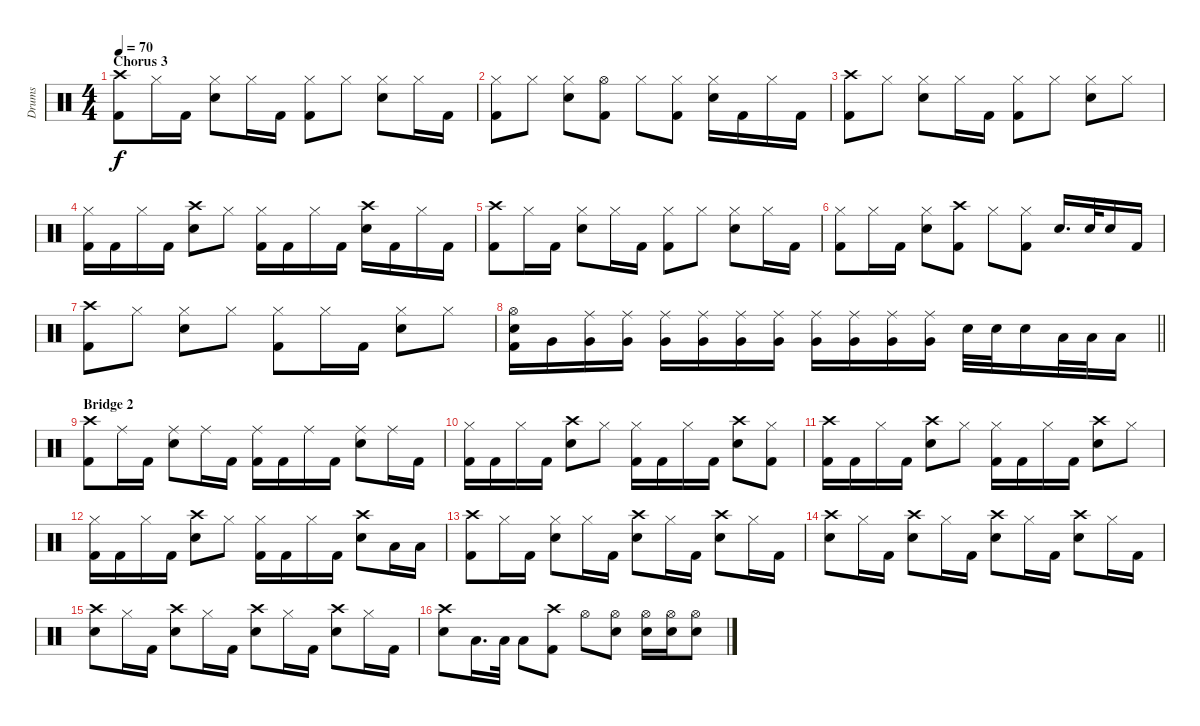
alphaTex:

\track ("Drums" "Drums") {instrument percussion}
\staff {score}
\articulation defaults
\ts (4 4)
\section ("" "Chorus 3")
\tempo 70
\clef neutral
\ks c
("Crash high (hit)" "Kick (hit) 2").8{dy f} "Hi-Hat (closed)".16 "Kick (hit) 2".16 ("Hi-Hat (closed)" "Snare (hit) 2").8 "Hi-Hat (closed)".16 "Kick (hit) 2".16 ("Hi-Hat (closed)" "Kick (hit) 2").8 "Hi-Hat (closed)".8 ("Hi-Hat (closed)" "Snare (hit) 2").8 "Hi-Hat (closed)".16 "Kick (hit) 2".16 |
("Hi-Hat (closed)" "Kick (hit) 2").8 "Hi-Hat (closed)".8 ("Hi-Hat (closed)" "Snare (hit) 2").8 ("Hi-Hat (open)" "Kick (hit) 2").8 "Hi-Hat (closed)".8 ("Hi-Hat (closed)" "Kick (hit) 2").8 ("Hi-Hat (closed)" "Snare (hit) 2").16 "Kick (hit) 2".16 "Hi-Hat (closed)".16 "Kick (hit) 2".16 |
("Crash high (hit)" "Kick (hit) 2").8 "Hi-Hat (closed)".8 ("Hi-Hat (closed)" "Snare (hit) 2").8 "Hi-Hat (closed)".16 "Kick (hit) 2".16 ("Hi-Hat (closed)" "Kick (hit) 2").8 "Hi-Hat (closed)".8 ("Hi-Hat (closed)" "Snare (hit) 2").8 "Hi-Hat (closed)".8 |
("Hi-Hat (closed)" "Kick (hit) 2").16 "Kick (hit) 2".16 "Hi-Hat (closed)".16 "Kick (hit) 2".16 ("Crash high (hit)" "Snare (hit) 2").8 "Hi-Hat (closed)".8 ("Hi-Hat (closed)" "Kick (hit) 2").16 "Kick (hit) 2".16 "Hi-Hat (closed)".16 "Kick (hit) 2".16 ("Crash high (hit)" "Snare (hit) 2").16 "Kick (hit) 2".16 "Hi-Hat (closed)".16 "Kick (hit) 2".16 |
("Crash high (hit)" "Kick (hit) 2").8 "Hi-Hat (closed)".16 "Kick (hit) 2".16 ("Hi-Hat (closed)" "Snare (hit) 2").8 "Hi-Hat (closed)".16 "Kick (hit) 2".16 ("Hi-Hat (closed)" "Kick (hit) 2").8 "Hi-Hat (closed)".8 ("Hi-Hat (closed)" "Snare (hit) 2").8 "Hi-Hat (closed)".16 "Kick (hit) 2".16 |
("Hi-Hat (closed)" "Kick (hit) 2").8 "Hi-Hat (closed)".16 "Kick (hit) 2".16 ("Hi-Hat (closed)" "Snare (hit) 2").8 ("Crash high (hit)" "Kick (hit) 2").8 "Hi-Hat (closed)".8 ("Hi-Hat (closed)" "Kick (hit) 2").8 "Snare (hit) 2".16{d} "Snare (hit) 2".32 "Snare (hit) 2".16 "Kick (hit) 2".16 |
("Crash high (hit)" "Kick (hit) 2").8 "Hi-Hat (closed)".8 ("Hi-Hat (closed)" "Snare (hit) 2").8 "Hi-Hat (closed)".8 ("Hi-Hat (closed)" "Kick (hit) 2").8 "Hi-Hat (closed)".16 "Kick (hit) 2".16 ("Hi-Hat (closed)" "Snare (hit) 2").8 "Hi-Hat (closed)".8 |
\barLineRight lightlight
("Hi-Hat (open)" "Snare (hit) 2" "Kick (hit) 2").16 "Very Low Tom (hit)".16 ("Ride (middle)" "Very Low Tom (hit)").16 ("Ride (middle)" "Very Low Tom (hit)").16 ("Ride (middle)" "Very Low Tom (hit)").16 ("Ride (middle)" "Very Low Tom (hit)").16 ("Ride (middle)" "Very Low Tom (hit)").16 ("Ride (middle)" "Very Low Tom (hit)").16 ("Ride (middle)" "Very Low Tom (hit)").16 ("Ride (middle)" "Very Low Tom (hit)").16 ("Ride (middle)" "Very Low Tom (hit)").16 ("Ride (middle)" "Very Low Tom (hit)").16 "Snare (hit) 2".32 "Snare (hit) 2".32 "Snare (hit) 2".16 "Low Tom (hit)".32 "Low Tom (hit)".32 "Low Tom (hit)".16 |
\section ("" "Bridge 2")
("Crash high (hit)" "Kick (hit) 2").8 "Ride (middle)".16 "Kick (hit) 2".16 ("Ride (middle)" "Snare (hit) 2").8 "Ride (middle)".16 "Kick (hit) 2".16 ("Ride (middle)" "Kick (hit) 2").16 "Kick (hit) 2".16 "Ride (middle)".16 "Kick (hit) 2".16 ("Ride (middle)" "Snare (hit) 2").8 "Ride (middle)".16 "Kick (hit) 2".16 |
("Hi-Hat (closed)" "Kick (hit) 2").16 "Kick (hit) 2".16 "Hi-Hat (closed)".16 "Kick (hit) 2".16 ("Crash high (hit)" "Snare (hit) 2").8 "Hi-Hat (closed)".8 ("Hi-Hat (closed)" "Kick (hit) 2").16 "Kick (hit) 2".16 "Hi-Hat (closed)".16 "Kick (hit) 2".16 ("Crash high (hit)" "Snare (hit) 2").8 ("Hi-Hat (closed)" "Kick (hit) 2").8 |
("Crash high (hit)" "Kick (hit) 2").16 "Kick (hit) 2".16 "Hi-Hat (closed)".16 "Kick (hit) 2".16 ("Crash high (hit)" "Snare (hit) 2").8 "Hi-Hat (closed)".8 ("Hi-Hat (closed)" "Kick (hit) 2").16 "Kick (hit) 2".16 "Hi-Hat (closed)".16 "Kick (hit) 2".16 ("Crash high (hit)" "Snare (hit) 2").8 "Hi-Hat (closed)".8 |
("Hi-Hat (closed)" "Kick (hit) 2").16 "Kick (hit) 2".16 "Hi-Hat (closed)".16 "Kick (hit) 2".16 ("Crash high (hit)" "Snare (hit) 2").8 "Hi-Hat (closed)".8 ("Hi-Hat (closed)" "Kick (hit) 2").16 "Kick (hit) 2".16 "Hi-Hat (closed)".16 "Kick (hit) 2".16 ("Crash high (hit)" "Snare (hit) 2").8 "Low Tom (hit)".16 "Low Tom (hit)".16 |
("Crash high (hit)" "Kick (hit) 2").8 "Hi-Hat (closed)".16 "Kick (hit) 2".16 ("Hi-Hat (closed)" "Snare (hit) 2").8 "Hi-Hat (closed)".16 "Kick (hit) 2".16 ("Crash high (hit)" "Snare (hit) 2").8 "Hi-Hat (closed)".16 "Kick (hit) 2".16 ("Crash high (hit)" "Snare (hit) 2").8 "Hi-Hat (closed)".16 "Kick (hit) 2".16 |
("Crash high (hit)" "Snare (hit) 2").8 "Hi-Hat (closed)".16 "Kick (hit) 2".16 ("Crash high (hit)" "Snare (hit) 2").8 "Hi-Hat (closed)".16 "Kick (hit) 2".16 ("Crash high (hit)" "Snare (hit) 2").8 "Hi-Hat (closed)".16 "Kick (hit) 2".16 ("Crash high (hit)" "Snare (hit) 2").8 "Hi-Hat (closed)".16 "Kick (hit) 2".16 |
("Crash high (hit)" "Snare (hit) 2").8 "Hi-Hat (closed)".16 "Kick (hit) 2".16 ("Crash high (hit)" "Snare (hit) 2").8 "Hi-Hat (closed)".16 "Kick (hit) 2".16 ("Crash high (hit)" "Snare (hit) 2").8 "Hi-Hat (closed)".16 "Kick (hit) 2".16 ("Crash high (hit)" "Snare (hit) 2").8 "Hi-Hat (closed)".16 "Kick (hit) 2".16 |
("Crash high (hit)" "Snare (hit) 2").8 "Low Tom (hit)".16{d} "Low Tom (hit)".32 "Low Tom (hit)".8 ("Crash high (hit)" "Kick (hit) 2").8 "Hi-Hat (open)".8 ("Hi-Hat (open)" "Snare (hit) 2").8 ("Hi-Hat (open)" "Snare (hit) 2").16 ("Hi-Hat (open)" "Snare (hit) 2").16 ("Hi-Hat (open)" "Snare (hit) 2").8
